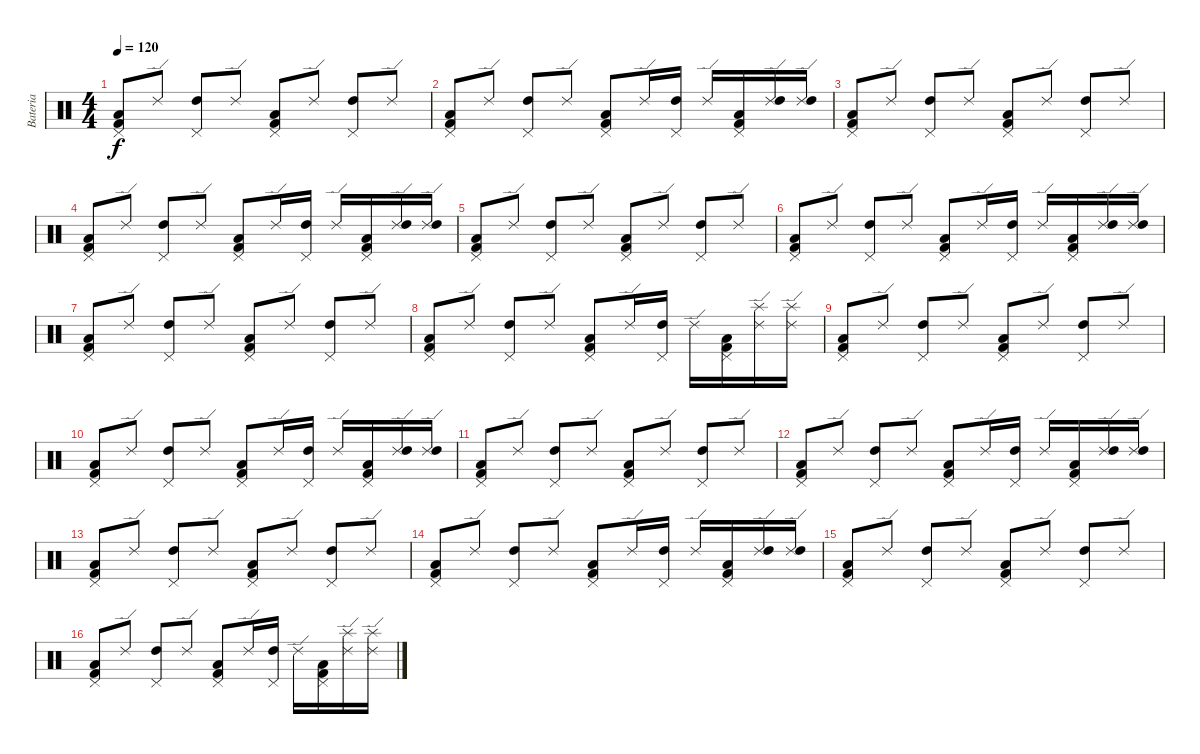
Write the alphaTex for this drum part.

\track ("Bateria" "Bateria") {instrument percussion}
\staff {score}
\articulation defaults
\ts (4 4)
\tempo 120
\clef neutral
\ks c
("Low Tom (hit)" "Kick (hit) 2" "Pedal Hi-Hat (hit)").8{dy f} "Ride (edge) 2".8 ("High Tom (hit)" "Pedal Hi-Hat (hit)").8 "Ride (edge) 2".8 ("Low Tom (hit)" "Kick (hit) 2" "Pedal Hi-Hat (hit)").8 "Ride (edge) 2".8 ("High Tom (hit)" "Pedal Hi-Hat (hit)").8 "Ride (edge) 2".8 |
("Low Tom (hit)" "Kick (hit) 2" "Pedal Hi-Hat (hit)").8 "Ride (edge) 2".8 ("High Tom (hit)" "Pedal Hi-Hat (hit)").8 "Ride (edge) 2".8 ("Low Tom (hit)" "Kick (hit) 2" "Pedal Hi-Hat (hit)").8 "Ride (edge) 2".16 ("High Tom (hit)" "Pedal Hi-Hat (hit)").16 "Ride (edge) 2".16 ("Low Tom (hit)" "Kick (hit) 2" "Pedal Hi-Hat (hit)").16 ("Ride (edge) 2" "High Tom (hit)").16 ("Ride (edge) 2" "High Tom (hit)").16 |
("Low Tom (hit)" "Kick (hit) 2" "Pedal Hi-Hat (hit)").8 "Ride (edge) 2".8 ("High Tom (hit)" "Pedal Hi-Hat (hit)").8 "Ride (edge) 2".8 ("Low Tom (hit)" "Kick (hit) 2" "Pedal Hi-Hat (hit)").8 "Ride (edge) 2".8 ("High Tom (hit)" "Pedal Hi-Hat (hit)").8 "Ride (edge) 2".8 |
("Low Tom (hit)" "Kick (hit) 2" "Pedal Hi-Hat (hit)").8 "Ride (edge) 2".8 ("High Tom (hit)" "Pedal Hi-Hat (hit)").8 "Ride (edge) 2".8 ("Low Tom (hit)" "Kick (hit) 2" "Pedal Hi-Hat (hit)").8 "Ride (edge) 2".16 ("High Tom (hit)" "Pedal Hi-Hat (hit)").16 "Ride (edge) 2".16 ("Low Tom (hit)" "Kick (hit) 2" "Pedal Hi-Hat (hit)").16 ("Ride (edge) 2" "High Tom (hit)").16 ("Ride (edge) 2" "High Tom (hit)").16 |
("Low Tom (hit)" "Kick (hit) 2" "Pedal Hi-Hat (hit)").8 "Ride (edge) 2".8 ("High Tom (hit)" "Pedal Hi-Hat (hit)").8 "Ride (edge) 2".8 ("Low Tom (hit)" "Kick (hit) 2" "Pedal Hi-Hat (hit)").8 "Ride (edge) 2".8 ("High Tom (hit)" "Pedal Hi-Hat (hit)").8 "Ride (edge) 2".8 |
("Low Tom (hit)" "Kick (hit) 2" "Pedal Hi-Hat (hit)").8 "Ride (edge) 2".8 ("High Tom (hit)" "Pedal Hi-Hat (hit)").8 "Ride (edge) 2".8 ("Low Tom (hit)" "Kick (hit) 2" "Pedal Hi-Hat (hit)").8 "Ride (edge) 2".16 ("High Tom (hit)" "Pedal Hi-Hat (hit)").16 "Ride (edge) 2".16 ("Low Tom (hit)" "Kick (hit) 2" "Pedal Hi-Hat (hit)").16 ("Ride (edge) 2" "High Tom (hit)").16 ("Ride (edge) 2" "High Tom (hit)").16 |
("Low Tom (hit)" "Kick (hit) 2" "Pedal Hi-Hat (hit)").8 "Ride (edge) 2".8 ("High Tom (hit)" "Pedal Hi-Hat (hit)").8 "Ride (edge) 2".8 ("Low Tom (hit)" "Kick (hit) 2" "Pedal Hi-Hat (hit)").8 "Ride (edge) 2".8 ("High Tom (hit)" "Pedal Hi-Hat (hit)").8 "Ride (edge) 2".8 |
("Low Tom (hit)" "Kick (hit) 2" "Pedal Hi-Hat (hit)").8 "Ride (edge) 2".8 ("High Tom (hit)" "Pedal Hi-Hat (hit)").8 "Ride (edge) 2".8 ("Low Tom (hit)" "Kick (hit) 2" "Pedal Hi-Hat (hit)").8 "Ride (edge) 2".16 ("High Tom (hit)" "Pedal Hi-Hat (hit)").16 "Ride (edge) 2".16 ("Low Tom (hit)" "Kick (hit) 2" "Pedal Hi-Hat (hit)").16 ("Ride (edge) 2" "Splash (hit)").16 ("Ride (edge) 2" "Splash (hit)").16 |
("Low Tom (hit)" "Kick (hit) 2" "Pedal Hi-Hat (hit)").8 "Ride (edge) 2".8 ("High Tom (hit)" "Pedal Hi-Hat (hit)").8 "Ride (edge) 2".8 ("Low Tom (hit)" "Kick (hit) 2" "Pedal Hi-Hat (hit)").8 "Ride (edge) 2".8 ("High Tom (hit)" "Pedal Hi-Hat (hit)").8 "Ride (edge) 2".8 |
("Low Tom (hit)" "Kick (hit) 2" "Pedal Hi-Hat (hit)").8 "Ride (edge) 2".8 ("High Tom (hit)" "Pedal Hi-Hat (hit)").8 "Ride (edge) 2".8 ("Low Tom (hit)" "Kick (hit) 2" "Pedal Hi-Hat (hit)").8 "Ride (edge) 2".16 ("High Tom (hit)" "Pedal Hi-Hat (hit)").16 "Ride (edge) 2".16 ("Low Tom (hit)" "Kick (hit) 2" "Pedal Hi-Hat (hit)").16 ("Ride (edge) 2" "High Tom (hit)").16 ("Ride (edge) 2" "High Tom (hit)").16 |
("Low Tom (hit)" "Kick (hit) 2" "Pedal Hi-Hat (hit)").8 "Ride (edge) 2".8 ("High Tom (hit)" "Pedal Hi-Hat (hit)").8 "Ride (edge) 2".8 ("Low Tom (hit)" "Kick (hit) 2" "Pedal Hi-Hat (hit)").8 "Ride (edge) 2".8 ("High Tom (hit)" "Pedal Hi-Hat (hit)").8 "Ride (edge) 2".8 |
("Low Tom (hit)" "Kick (hit) 2" "Pedal Hi-Hat (hit)").8 "Ride (edge) 2".8 ("High Tom (hit)" "Pedal Hi-Hat (hit)").8 "Ride (edge) 2".8 ("Low Tom (hit)" "Kick (hit) 2" "Pedal Hi-Hat (hit)").8 "Ride (edge) 2".16 ("High Tom (hit)" "Pedal Hi-Hat (hit)").16 "Ride (edge) 2".16 ("Low Tom (hit)" "Kick (hit) 2" "Pedal Hi-Hat (hit)").16 ("Ride (edge) 2" "High Tom (hit)").16 ("Ride (edge) 2" "High Tom (hit)").16 |
("Low Tom (hit)" "Kick (hit) 2" "Pedal Hi-Hat (hit)").8 "Ride (edge) 2".8 ("High Tom (hit)" "Pedal Hi-Hat (hit)").8 "Ride (edge) 2".8 ("Low Tom (hit)" "Kick (hit) 2" "Pedal Hi-Hat (hit)").8 "Ride (edge) 2".8 ("High Tom (hit)" "Pedal Hi-Hat (hit)").8 "Ride (edge) 2".8 |
("Low Tom (hit)" "Kick (hit) 2" "Pedal Hi-Hat (hit)").8 "Ride (edge) 2".8 ("High Tom (hit)" "Pedal Hi-Hat (hit)").8 "Ride (edge) 2".8 ("Low Tom (hit)" "Kick (hit) 2" "Pedal Hi-Hat (hit)").8 "Ride (edge) 2".16 ("High Tom (hit)" "Pedal Hi-Hat (hit)").16 "Ride (edge) 2".16 ("Low Tom (hit)" "Kick (hit) 2" "Pedal Hi-Hat (hit)").16 ("Ride (edge) 2" "High Tom (hit)").16 ("Ride (edge) 2" "High Tom (hit)").16 |
("Low Tom (hit)" "Kick (hit) 2" "Pedal Hi-Hat (hit)").8 "Ride (edge) 2".8 ("High Tom (hit)" "Pedal Hi-Hat (hit)").8 "Ride (edge) 2".8 ("Low Tom (hit)" "Kick (hit) 2" "Pedal Hi-Hat (hit)").8 "Ride (edge) 2".8 ("High Tom (hit)" "Pedal Hi-Hat (hit)").8 "Ride (edge) 2".8 |
("Low Tom (hit)" "Kick (hit) 2" "Pedal Hi-Hat (hit)").8 "Ride (edge) 2".8 ("High Tom (hit)" "Pedal Hi-Hat (hit)").8 "Ride (edge) 2".8 ("Low Tom (hit)" "Kick (hit) 2" "Pedal Hi-Hat (hit)").8 "Ride (edge) 2".16 ("High Tom (hit)" "Pedal Hi-Hat (hit)").16 "Ride (edge) 2".16 ("Low Tom (hit)" "Kick (hit) 2" "Pedal Hi-Hat (hit)").16 ("Ride (edge) 2" "Splash (hit)").16 ("Ride (edge) 2" "Splash (hit)").16
